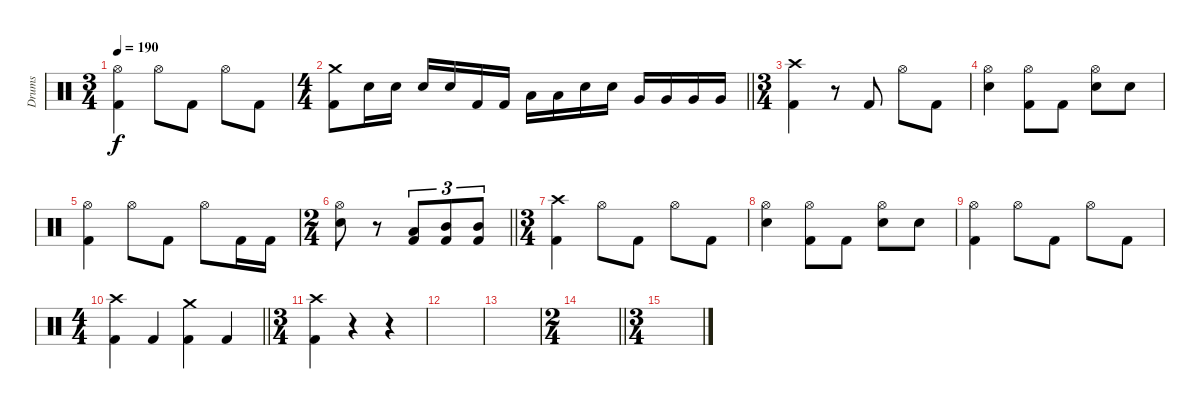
\track ("Drums" "Drums") {instrument percussion}
\staff {score}
\articulation defaults
\ts (3 4)
\tempo 190
\clef neutral
\ks c
("Hi-Hat (open)" "Kick (hit) 2").4{dy f} "Hi-Hat (open)".8 "Kick (hit) 2".8 "Hi-Hat (open)".8 "Kick (hit) 2".8 |
\ts (4 4)
\barLineRight lightlight
("Crash medium (hit)" "Kick (hit) 2").8 "Electric Snare (hit)".16 "Electric Snare (hit)".16 "Electric Snare (hit)".16 "Electric Snare (hit)".16 "Kick (hit) 2".16 "Kick (hit) 2".16 "Low Tom (hit)".16 "Low Tom (hit)".16 "Electric Snare (hit)".16 "Electric Snare (hit)".16 "Very Low Tom (hit)".16 "Very Low Tom (hit)".16 "Very Low Tom (hit)".16 "Very Low Tom (hit)".16 |
\ts (3 4)
("Crash high (hit)" "Kick (hit) 2").4 r.8 "Kick (hit) 2".8 "Hi-Hat (open)".8 "Kick (hit) 2".8 |
("Hi-Hat (open)" "Electric Snare (hit)").4 ("Hi-Hat (open)" "Kick (hit) 2").8 "Kick (hit) 2".8 ("Hi-Hat (open)" "Electric Snare (hit)").8 "Electric Snare (hit)".8 |
("Hi-Hat (open)" "Kick (hit) 2").4 "Hi-Hat (open)".8 "Kick (hit) 2".8 "Hi-Hat (open)".8 "Kick (hit) 2".16 "Kick (hit) 2".16 |
\ts (2 4)
\barLineRight lightlight
("Hi-Hat (open)" "Electric Snare (hit)").8 r.8 ("Low Tom (hit)" "Kick (hit) 2").8{tu (3 2)} ("Mid Tom (hit)" "Kick (hit) 2").8{tu (3 2)} ("Mid Tom (hit)" "Kick (hit) 2").8{tu (3 2)} |
\ts (3 4)
("Crash high (hit)" "Kick (hit) 2").4 "Hi-Hat (open)".8 "Kick (hit) 2".8 "Hi-Hat (open)".8 "Kick (hit) 2".8 |
("Hi-Hat (open)" "Electric Snare (hit)").4 ("Hi-Hat (open)" "Kick (hit) 2").8 "Kick (hit) 2".8 ("Hi-Hat (open)" "Electric Snare (hit)").8 "Electric Snare (hit)".8 |
("Hi-Hat (open)" "Kick (hit) 2").4 "Hi-Hat (open)".8 "Kick (hit) 2".8 "Hi-Hat (open)".8 "Kick (hit) 2".8 |
\ts (4 4)
\barLineRight lightlight
("Crash high (hit)" "Kick (hit) 2").4 "Kick (hit) 2".4 ("Crash medium (hit)" "Kick (hit) 2").4 "Kick (hit) 2".4 |
\ts (3 4)
("Crash high (hit)" "Kick (hit) 2").4 r.4 r.4 |
|
|
\ts (2 4)
\barLineRight lightlight
|
\ts (3 4)
